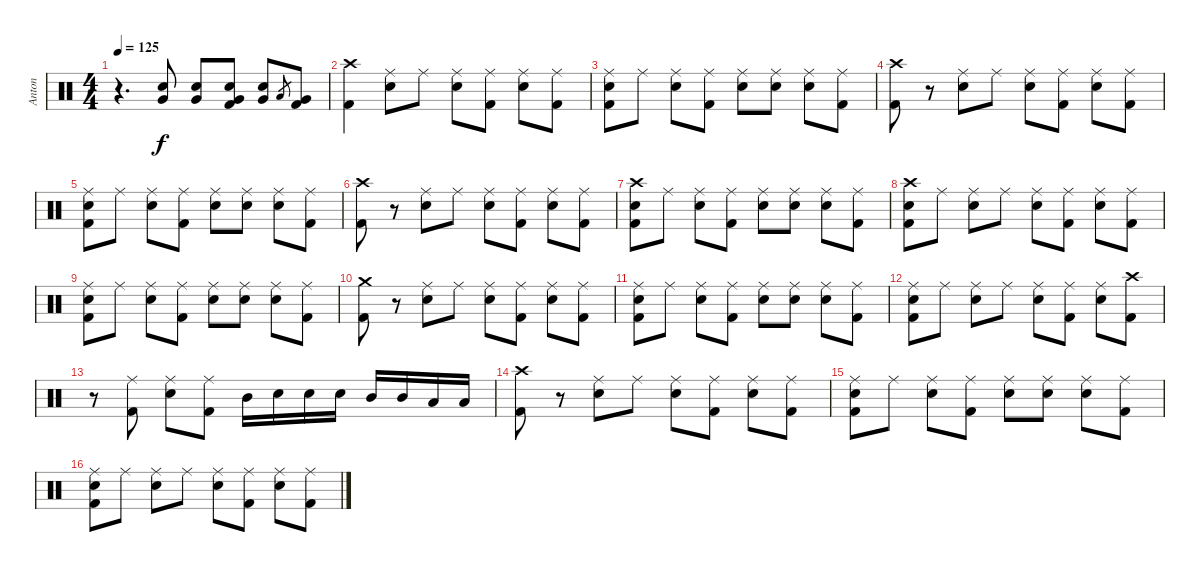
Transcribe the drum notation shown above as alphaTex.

\track ("Anton" "Anton") {instrument percussion}
\staff {score}
\articulation defaults
\ts (4 4)
\tempo 125
\clef neutral
\ks c
r.4{d dy f} ("Electric Snare (hit)" "Very Low Tom (hit)").8 ("Electric Snare (hit)" "Very Low Tom (hit)").8 ("Kick (hit) 2" "Electric Snare (hit)" "Very Low Tom (hit)").8 ("Electric Snare (hit)" "Very Low Tom (hit)").8 "Low Tom (hit)".8{gr} ("Kick (hit) 2" "Very Low Tom (hit)").8 |
("Kick (hit) 2" "Crash high (hit)").4 ("Electric Snare (hit)" "Ride (middle)").8 "Ride (middle)".8 ("Electric Snare (hit)" "Ride (middle)").8 ("Kick (hit) 2" "Ride (middle)").8 ("Electric Snare (hit)" "Ride (middle)").8 ("Kick (hit) 2" "Ride (middle)").8 |
("Kick (hit) 2" "Electric Snare (hit)" "Ride (middle)").8 "Ride (middle)".8 ("Electric Snare (hit)" "Ride (middle)").8 ("Kick (hit) 2" "Ride (middle)").8 ("Electric Snare (hit)" "Ride (middle)").8 ("Electric Snare (hit)" "Ride (middle)").8 ("Electric Snare (hit)" "Ride (middle)").8 ("Kick (hit) 2" "Ride (middle)").8 |
("Kick (hit) 2" "Crash high (hit)").8 r.8 ("Electric Snare (hit)" "Ride (middle)").8 "Ride (middle)".8 ("Electric Snare (hit)" "Ride (middle)").8 ("Kick (hit) 2" "Ride (middle)").8 ("Electric Snare (hit)" "Ride (middle)").8 ("Kick (hit) 2" "Ride (middle)").8 |
("Kick (hit) 2" "Electric Snare (hit)" "Ride (middle)").8 "Ride (middle)".8 ("Electric Snare (hit)" "Ride (middle)").8 ("Kick (hit) 2" "Ride (middle)").8 ("Electric Snare (hit)" "Ride (middle)").8 ("Electric Snare (hit)" "Ride (middle)").8 ("Electric Snare (hit)" "Ride (middle)").8 ("Kick (hit) 2" "Ride (middle)").8 |
("Kick (hit) 2" "Crash high (hit)").8 r.8 ("Electric Snare (hit)" "Ride (middle)").8 "Ride (middle)".8 ("Electric Snare (hit)" "Ride (middle)").8 ("Kick (hit) 2" "Ride (middle)").8 ("Electric Snare (hit)" "Ride (middle)").8 ("Kick (hit) 2" "Ride (middle)").8 |
("Kick (hit) 2" "Electric Snare (hit)" "Crash high (hit)").8 "Ride (middle)".8 ("Electric Snare (hit)" "Ride (middle)").8 ("Kick (hit) 2" "Ride (middle)").8 ("Electric Snare (hit)" "Ride (middle)").8 ("Electric Snare (hit)" "Ride (middle)").8 ("Electric Snare (hit)" "Ride (middle)").8 ("Kick (hit) 2" "Ride (middle)").8 |
("Kick (hit) 2" "Electric Snare (hit)" "Crash high (hit)").8 "Ride (middle)".8 ("Electric Snare (hit)" "Ride (middle)").8 "Ride (middle)".8 ("Electric Snare (hit)" "Ride (middle)").8 ("Kick (hit) 2" "Ride (middle)").8 ("Electric Snare (hit)" "Ride (middle)").8 ("Kick (hit) 2" "Ride (middle)").8 |
("Kick (hit) 2" "Electric Snare (hit)" "Ride (middle)").8 "Ride (middle)".8 ("Electric Snare (hit)" "Ride (middle)").8 ("Kick (hit) 2" "Ride (middle)").8 ("Electric Snare (hit)" "Ride (middle)").8 ("Electric Snare (hit)" "Ride (middle)").8 ("Electric Snare (hit)" "Ride (middle)").8 ("Kick (hit) 2" "Ride (middle)").8 |
("Kick (hit) 2" "Crash medium (hit)").8 r.8 ("Electric Snare (hit)" "Ride (middle)").8 "Ride (middle)".8 ("Electric Snare (hit)" "Ride (middle)").8 ("Kick (hit) 2" "Ride (middle)").8 ("Electric Snare (hit)" "Ride (middle)").8 ("Kick (hit) 2" "Ride (middle)").8 |
("Kick (hit) 2" "Electric Snare (hit)" "Ride (middle)").8 "Ride (middle)".8 ("Electric Snare (hit)" "Ride (middle)").8 ("Kick (hit) 2" "Ride (middle)").8 ("Electric Snare (hit)" "Ride (middle)").8 ("Electric Snare (hit)" "Ride (middle)").8 ("Electric Snare (hit)" "Ride (middle)").8 ("Kick (hit) 2" "Ride (middle)").8 |
("Kick (hit) 2" "Electric Snare (hit)" "Ride (middle)").8 "Ride (middle)".8 ("Electric Snare (hit)" "Ride (middle)").8 "Ride (middle)".8 ("Electric Snare (hit)" "Ride (middle)").8 ("Kick (hit) 2" "Ride (middle)").8 ("Electric Snare (hit)" "Ride (middle)").8 ("Kick (hit) 2" "Crash high (hit)").8 |
r.8 ("Kick (hit) 2" "Ride (middle)").8 ("Electric Snare (hit)" "Ride (middle)").8 ("Kick (hit) 2" "Ride (middle)").8 "Mid Tom (hit)".16 "Electric Snare (hit)".16 "Electric Snare (hit)".16 "Electric Snare (hit)".16 "Mid Tom (hit)".16 "Mid Tom (hit)".16 "Low Tom (hit)".16 "Low Tom (hit)".16 |
("Kick (hit) 2" "Crash high (hit)").8 r.8 ("Electric Snare (hit)" "Ride (middle)").8 "Ride (middle)".8 ("Electric Snare (hit)" "Ride (middle)").8 ("Kick (hit) 2" "Ride (middle)").8 ("Electric Snare (hit)" "Ride (middle)").8 ("Kick (hit) 2" "Ride (middle)").8 |
("Kick (hit) 2" "Electric Snare (hit)" "Ride (middle)").8 "Ride (middle)".8 ("Electric Snare (hit)" "Ride (middle)").8 ("Kick (hit) 2" "Ride (middle)").8 ("Electric Snare (hit)" "Ride (middle)").8 ("Electric Snare (hit)" "Ride (middle)").8 ("Electric Snare (hit)" "Ride (middle)").8 ("Kick (hit) 2" "Ride (middle)").8 |
("Kick (hit) 2" "Electric Snare (hit)" "Ride (middle)").8 "Ride (middle)".8 ("Electric Snare (hit)" "Ride (middle)").8 "Ride (middle)".8 ("Electric Snare (hit)" "Ride (middle)").8 ("Kick (hit) 2" "Ride (middle)").8 ("Electric Snare (hit)" "Ride (middle)").8 ("Kick (hit) 2" "Ride (middle)").8
